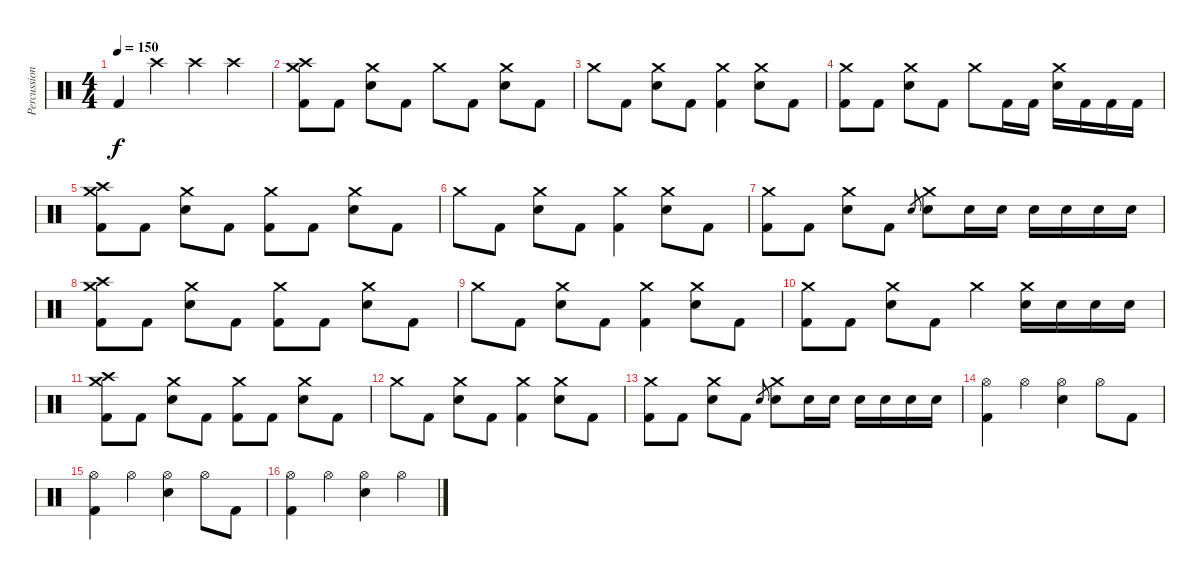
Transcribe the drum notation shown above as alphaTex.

\track ("Percussion" "Percussion") {instrument percussion}
\staff {score}
\articulation defaults
\ts (4 4)
\tempo 150
\clef neutral
\ks c "Kick (hit) 2".4{dy f} "Crash high (hit)".4 "Crash high (hit)".4 "Crash high (hit)".4
|
("Crash high (hit)" "Crash medium (hit)" "Kick (hit) 2").8 "Kick (hit) 2".8 ("Crash medium (hit)" "Electric Snare (hit)").8 "Kick (hit) 2".8 "Crash medium (hit)".8 "Kick (hit) 2".8 ("Crash medium (hit)" "Electric Snare (hit)").8 "Kick (hit) 2".8 |
"Crash medium (hit)".8 "Kick (hit) 2".8 ("Crash medium (hit)" "Electric Snare (hit)").8 "Kick (hit) 2".8 ("Crash medium (hit)" "Kick (hit) 2").4 ("Crash medium (hit)" "Electric Snare (hit)").8 "Kick (hit) 2".8 |
("Crash medium (hit)" "Kick (hit) 2").8 "Kick (hit) 2".8 ("Crash medium (hit)" "Electric Snare (hit)").8 "Kick (hit) 2".8 "Crash medium (hit)".8 "Kick (hit) 2".16 "Kick (hit) 2".16 ("Crash medium (hit)" "Electric Snare (hit)").16 "Kick (hit) 2".16 "Kick (hit) 2".16 "Kick (hit) 2".16 |
("Crash high (hit)" "Crash medium (hit)" "Kick (hit) 2").8 "Kick (hit) 2".8 ("Crash medium (hit)" "Electric Snare (hit)").8 "Kick (hit) 2".8 ("Crash medium (hit)" "Kick (hit) 2").8 "Kick (hit) 2".8 ("Crash medium (hit)" "Electric Snare (hit)").8 "Kick (hit) 2".8 |
"Crash medium (hit)".8 "Kick (hit) 2".8 ("Crash medium (hit)" "Electric Snare (hit)").8 "Kick (hit) 2".8 ("Crash medium (hit)" "Kick (hit) 2").4 ("Crash medium (hit)" "Electric Snare (hit)").8 "Kick (hit) 2".8 |
("Crash medium (hit)" "Kick (hit) 2").8 "Kick (hit) 2".8 ("Crash medium (hit)" "Electric Snare (hit)").8 "Kick (hit) 2".8 "Electric Snare (hit)".8{gr} ("Crash medium (hit)" "Electric Snare (hit)").8 "Electric Snare (hit)".16 "Electric Snare (hit)".16 "Electric Snare (hit)".16 "Electric Snare (hit)".16 "Electric Snare (hit)".16 "Electric Snare (hit)".16 |
("Crash high (hit)" "Crash medium (hit)" "Kick (hit) 2").8 "Kick (hit) 2".8 ("Crash medium (hit)" "Electric Snare (hit)").8 "Kick (hit) 2".8 ("Crash medium (hit)" "Kick (hit) 2").8 "Kick (hit) 2".8 ("Crash medium (hit)" "Electric Snare (hit)").8 "Kick (hit) 2".8 |
"Crash medium (hit)".8 "Kick (hit) 2".8 ("Crash medium (hit)" "Electric Snare (hit)").8 "Kick (hit) 2".8 ("Crash medium (hit)" "Kick (hit) 2").4 ("Crash medium (hit)" "Electric Snare (hit)").8 "Kick (hit) 2".8 |
("Crash medium (hit)" "Kick (hit) 2").8 "Kick (hit) 2".8 ("Crash medium (hit)" "Electric Snare (hit)").8 "Kick (hit) 2".8 "Crash medium (hit)".4 ("Crash medium (hit)" "Electric Snare (hit)").16 "Electric Snare (hit)".16 "Electric Snare (hit)".16 "Electric Snare (hit)".16 |
("Crash high (hit)" "Crash medium (hit)" "Kick (hit) 2").8 "Kick (hit) 2".8 ("Crash medium (hit)" "Electric Snare (hit)").8 "Kick (hit) 2".8 ("Crash medium (hit)" "Kick (hit) 2").8 "Kick (hit) 2".8 ("Crash medium (hit)" "Electric Snare (hit)").8 "Kick (hit) 2".8 |
"Crash medium (hit)".8 "Kick (hit) 2".8 ("Crash medium (hit)" "Electric Snare (hit)").8 "Kick (hit) 2".8 ("Crash medium (hit)" "Kick (hit) 2").4 ("Crash medium (hit)" "Electric Snare (hit)").8 "Kick (hit) 2".8 |
("Crash medium (hit)" "Kick (hit) 2").8 "Kick (hit) 2".8 ("Crash medium (hit)" "Electric Snare (hit)").8 "Kick (hit) 2".8 "Electric Snare (hit)".8{gr} ("Crash medium (hit)" "Electric Snare (hit)").8 "Electric Snare (hit)".16 "Electric Snare (hit)".16 "Electric Snare (hit)".16 "Electric Snare (hit)".16 "Electric Snare (hit)".16 "Electric Snare (hit)".16 |
("Hi-Hat (open)" "Kick (hit) 2").4 "Hi-Hat (open)".4 ("Hi-Hat (open)" "Electric Snare (hit)").4 "Hi-Hat (open)".8 "Kick (hit) 2".8 |
("Hi-Hat (open)" "Kick (hit) 2").4 "Hi-Hat (open)".4 ("Hi-Hat (open)" "Electric Snare (hit)").4 "Hi-Hat (open)".8 "Kick (hit) 2".8 |
("Hi-Hat (open)" "Kick (hit) 2").4 "Hi-Hat (open)".4 ("Hi-Hat (open)" "Electric Snare (hit)").4 "Hi-Hat (open)".4
